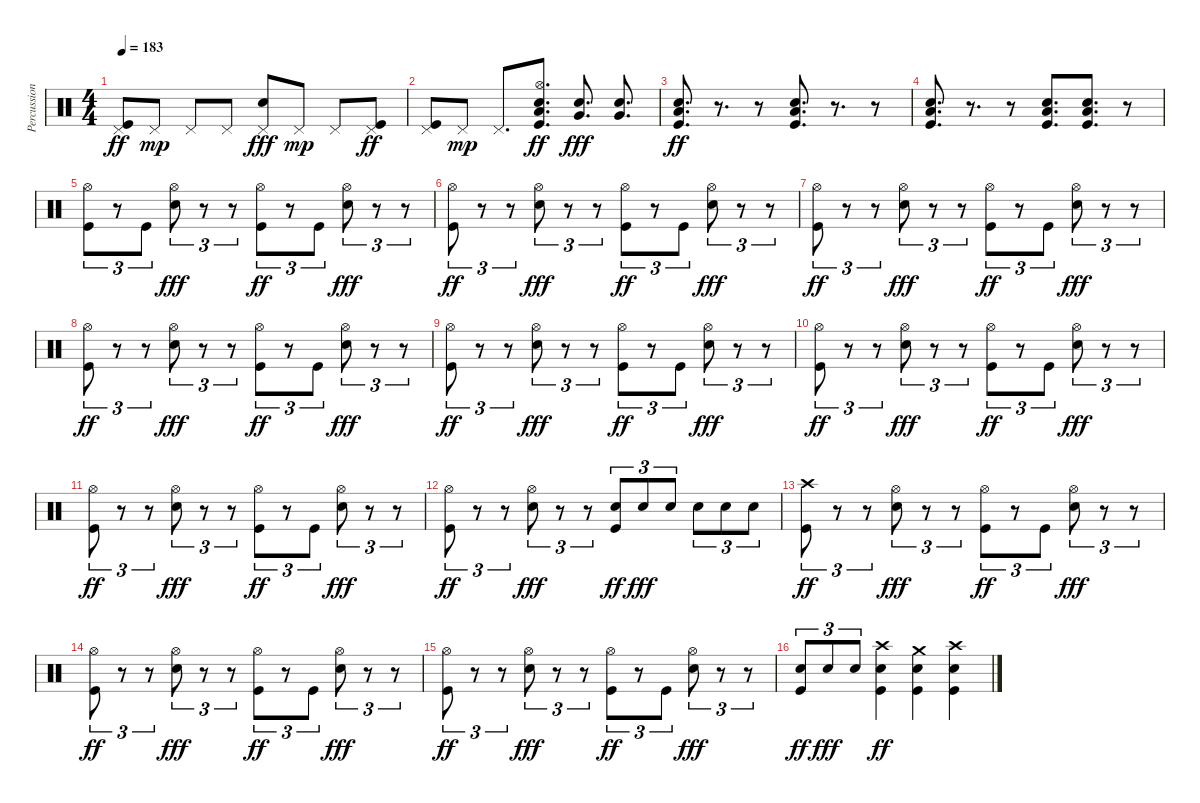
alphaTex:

\track ("Percussion" "Percussion") {instrument percussion}
\staff {score}
\articulation defaults
\ts (4 4)
\tempo 183
\clef neutral
\ks c
("Pedal Hi-Hat (hit)" "Kick (hit)").8{dy ff} "Pedal Hi-Hat (hit)".8{dy mp} "Pedal Hi-Hat (hit)".8 "Pedal Hi-Hat (hit)".8 ("Pedal Hi-Hat (hit)" "Snare (hit) 2").8{dy fff} "Pedal Hi-Hat (hit)".8{dy mp} "Pedal Hi-Hat (hit)".8 ("Pedal Hi-Hat (hit)" "Kick (hit)").8{dy ff} |
("Pedal Hi-Hat (hit)" "Kick (hit)").8 "Pedal Hi-Hat (hit)".8{dy mp} "Pedal Hi-Hat (hit)".8{d} ("Hi-Hat (open)" "Low Tom (hit)" "Snare (hit) 2" "Kick (hit)").8{d dy ff} ("Very Low Tom (hit)" "Snare (hit) 2").8{d dy fff} ("Very Low Tom (hit)" "Snare (hit) 2").8{d} |
("Low Floor Tom (hit)" "Snare (hit) 2" "Kick (hit)").8{d dy ff} r.8{d} r.8 ("Low Floor Tom (hit)" "Snare (hit) 2" "Kick (hit)").8{d} r.8{d} r.8 |
("Low Floor Tom (hit)" "Snare (hit) 2" "Kick (hit)").8{d} r.8{d} r.8 ("Low Floor Tom (hit)" "Snare (hit) 2" "Kick (hit)").8{d} ("Low Floor Tom (hit)" "Snare (hit) 2" "Kick (hit)").8{d} r.8 |
("Hi-Hat (open)" "Kick (hit)").8{tu (3 2)} r.8{tu (3 2)} "Kick (hit)".8{tu (3 2)} ("Hi-Hat (open)" "Snare (hit) 2").8{tu (3 2) dy fff} r.8{tu (3 2)} r.8{tu (3 2)} ("Hi-Hat (open)" "Kick (hit)").8{tu (3 2) dy ff} r.8{tu (3 2)} "Kick (hit)".8{tu (3 2)} ("Hi-Hat (open)" "Snare (hit) 2").8{tu (3 2) dy fff} r.8{tu (3 2)} r.8{tu (3 2)} |
("Hi-Hat (open)" "Kick (hit)").8{tu (3 2) dy ff} r.8{tu (3 2)} r.8{tu (3 2)} ("Hi-Hat (open)" "Snare (hit) 2").8{tu (3 2) dy fff} r.8{tu (3 2)} r.8{tu (3 2)} ("Hi-Hat (open)" "Kick (hit)").8{tu (3 2) dy ff} r.8{tu (3 2)} "Kick (hit)".8{tu (3 2)} ("Hi-Hat (open)" "Snare (hit) 2").8{tu (3 2) dy fff} r.8{tu (3 2)} r.8{tu (3 2)} |
("Hi-Hat (open)" "Kick (hit)").8{tu (3 2) dy ff} r.8{tu (3 2)} r.8{tu (3 2)} ("Hi-Hat (open)" "Snare (hit) 2").8{tu (3 2) dy fff} r.8{tu (3 2)} r.8{tu (3 2)} ("Hi-Hat (open)" "Kick (hit)").8{tu (3 2) dy ff} r.8{tu (3 2)} "Kick (hit)".8{tu (3 2)} ("Hi-Hat (open)" "Snare (hit) 2").8{tu (3 2) dy fff} r.8{tu (3 2)} r.8{tu (3 2)} |
("Hi-Hat (open)" "Kick (hit)").8{tu (3 2) dy ff} r.8{tu (3 2)} r.8{tu (3 2)} ("Hi-Hat (open)" "Snare (hit) 2").8{tu (3 2) dy fff} r.8{tu (3 2)} r.8{tu (3 2)} ("Hi-Hat (open)" "Kick (hit)").8{tu (3 2) dy ff} r.8{tu (3 2)} "Kick (hit)".8{tu (3 2)} ("Hi-Hat (open)" "Snare (hit) 2").8{tu (3 2) dy fff} r.8{tu (3 2)} r.8{tu (3 2)} |
("Hi-Hat (open)" "Kick (hit)").8{tu (3 2) dy ff} r.8{tu (3 2)} r.8{tu (3 2)} ("Hi-Hat (open)" "Snare (hit) 2").8{tu (3 2) dy fff} r.8{tu (3 2)} r.8{tu (3 2)} ("Hi-Hat (open)" "Kick (hit)").8{tu (3 2) dy ff} r.8{tu (3 2)} "Kick (hit)".8{tu (3 2)} ("Hi-Hat (open)" "Snare (hit) 2").8{tu (3 2) dy fff} r.8{tu (3 2)} r.8{tu (3 2)} |
("Hi-Hat (open)" "Kick (hit)").8{tu (3 2) dy ff} r.8{tu (3 2)} r.8{tu (3 2)} ("Hi-Hat (open)" "Snare (hit) 2").8{tu (3 2) dy fff} r.8{tu (3 2)} r.8{tu (3 2)} ("Hi-Hat (open)" "Kick (hit)").8{tu (3 2) dy ff} r.8{tu (3 2)} "Kick (hit)".8{tu (3 2)} ("Hi-Hat (open)" "Snare (hit) 2").8{tu (3 2) dy fff} r.8{tu (3 2)} r.8{tu (3 2)} |
("Hi-Hat (open)" "Kick (hit)").8{tu (3 2) dy ff} r.8{tu (3 2)} r.8{tu (3 2)} ("Hi-Hat (open)" "Snare (hit) 2").8{tu (3 2) dy fff} r.8{tu (3 2)} r.8{tu (3 2)} ("Hi-Hat (open)" "Kick (hit)").8{tu (3 2) dy ff} r.8{tu (3 2)} "Kick (hit)".8{tu (3 2)} ("Hi-Hat (open)" "Snare (hit) 2").8{tu (3 2) dy fff} r.8{tu (3 2)} r.8{tu (3 2)} |
("Hi-Hat (open)" "Kick (hit)").8{tu (3 2) dy ff} r.8{tu (3 2)} r.8{tu (3 2)} ("Hi-Hat (open)" "Snare (hit) 2").8{tu (3 2) dy fff} r.8{tu (3 2)} r.8{tu (3 2)} ("Snare (hit) 2" "Kick (hit)").8{tu (3 2) dy ff} "Snare (hit) 2".8{tu (3 2) dy fff} "Snare (hit) 2".8{tu (3 2)} "Snare (hit) 2".8{tu (3 2)} "Snare (hit) 2".8{tu (3 2)} "Snare (hit) 2".8{tu (3 2)} |
("Crash high (hit)" "Kick (hit)").8{tu (3 2) dy ff} r.8{tu (3 2)} r.8{tu (3 2)} ("Hi-Hat (open)" "Snare (hit) 2").8{tu (3 2) dy fff} r.8{tu (3 2)} r.8{tu (3 2)} ("Hi-Hat (open)" "Kick (hit)").8{tu (3 2) dy ff} r.8{tu (3 2)} "Kick (hit)".8{tu (3 2)} ("Hi-Hat (open)" "Snare (hit) 2").8{tu (3 2) dy fff} r.8{tu (3 2)} r.8{tu (3 2)} |
("Hi-Hat (open)" "Kick (hit)").8{tu (3 2) dy ff} r.8{tu (3 2)} r.8{tu (3 2)} ("Hi-Hat (open)" "Snare (hit) 2").8{tu (3 2) dy fff} r.8{tu (3 2)} r.8{tu (3 2)} ("Hi-Hat (open)" "Kick (hit)").8{tu (3 2) dy ff} r.8{tu (3 2)} "Kick (hit)".8{tu (3 2)} ("Hi-Hat (open)" "Snare (hit) 2").8{tu (3 2) dy fff} r.8{tu (3 2)} r.8{tu (3 2)} |
("Hi-Hat (open)" "Kick (hit)").8{tu (3 2) dy ff} r.8{tu (3 2)} r.8{tu (3 2)} ("Hi-Hat (open)" "Snare (hit) 2").8{tu (3 2) dy fff} r.8{tu (3 2)} r.8{tu (3 2)} ("Hi-Hat (open)" "Kick (hit)").8{tu (3 2) dy ff} r.8{tu (3 2)} "Kick (hit)".8{tu (3 2)} ("Hi-Hat (open)" "Snare (hit) 2").8{tu (3 2) dy fff} r.8{tu (3 2)} r.8{tu (3 2)} |
("Snare (hit) 2" "Kick (hit)").8{tu (3 2) dy ff} "Snare (hit) 2".8{tu (3 2) dy fff} "Snare (hit) 2".8{tu (3 2)} ("Crash high (hit)" "Snare (hit) 2" "Kick (hit)").4{dy ff} ("Crash medium (hit)" "Snare (hit) 2" "Kick (hit)").4 ("Crash high (hit)" "Snare (hit) 2" "Kick (hit)").4
